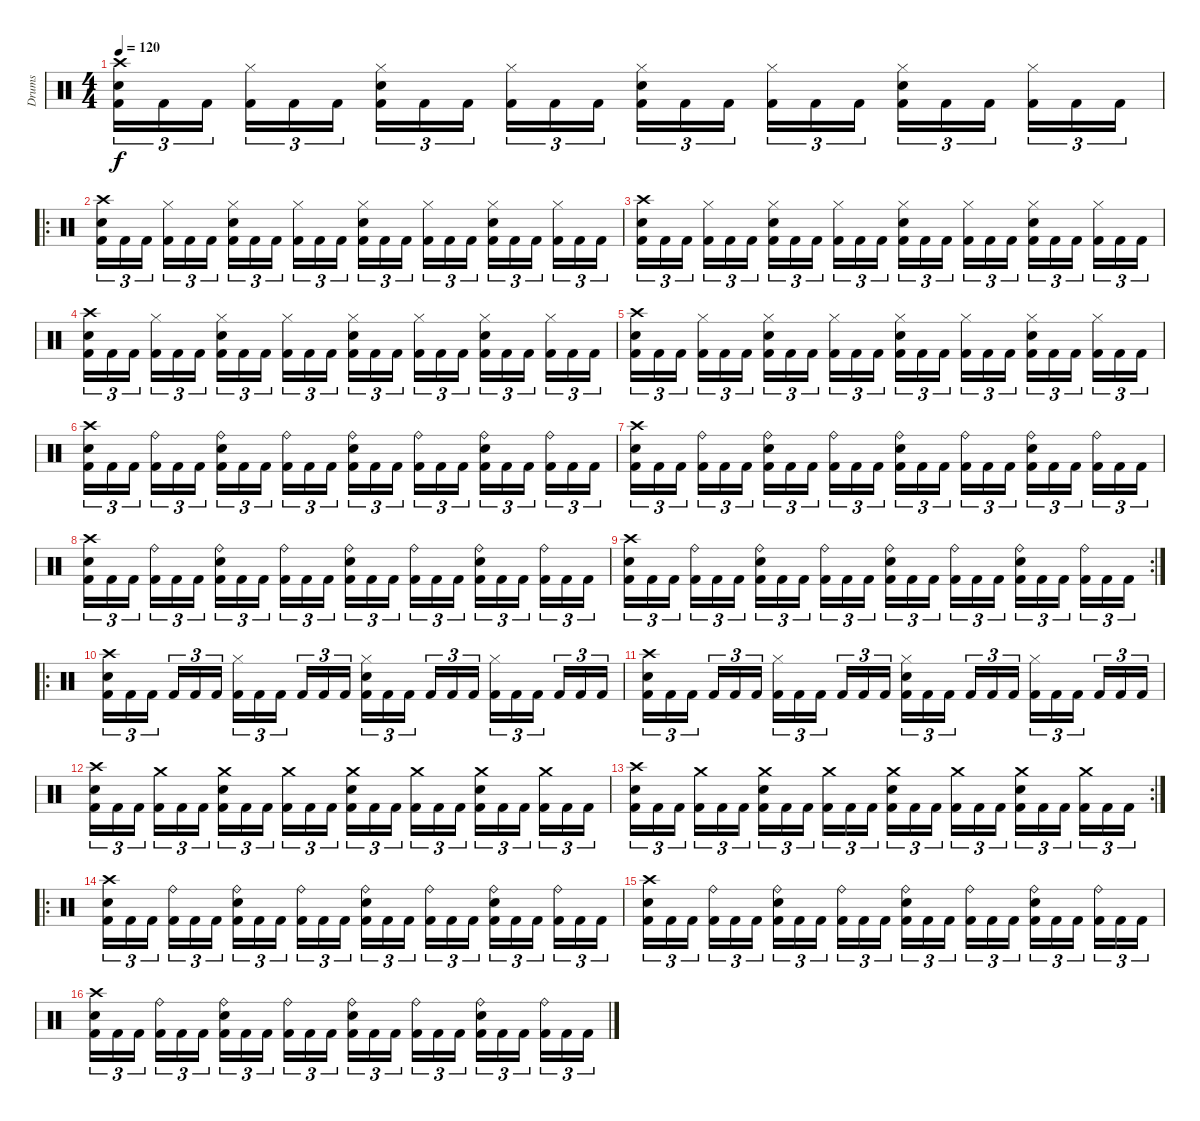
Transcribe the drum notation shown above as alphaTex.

\track ("Drums" "Drums") {instrument percussion}
\staff {score}
\articulation defaults
\ts (4 4)
\tempo 120
\clef neutral
\ks c
("Crash high (hit)" "Snare (hit) 2" "Kick (hit) 2").16{tu (3 2) dy f} "Kick (hit) 2".16{tu (3 2)} "Kick (hit) 2".16{tu (3 2)} ("Hi-Hat (closed)" "Kick (hit) 2").16{tu (3 2)} "Kick (hit) 2".16{tu (3 2)} "Kick (hit) 2".16{tu (3 2)} ("Hi-Hat (closed)" "Snare (hit) 2" "Kick (hit) 2").16{tu (3 2)} "Kick (hit) 2".16{tu (3 2)} "Kick (hit) 2".16{tu (3 2)} ("Hi-Hat (closed)" "Kick (hit) 2").16{tu (3 2)} "Kick (hit) 2".16{tu (3 2)} "Kick (hit) 2".16{tu (3 2)} ("Hi-Hat (closed)" "Snare (hit) 2" "Kick (hit) 2").16{tu (3 2)} "Kick (hit) 2".16{tu (3 2)} "Kick (hit) 2".16{tu (3 2)} ("Hi-Hat (closed)" "Kick (hit) 2").16{tu (3 2)} "Kick (hit) 2".16{tu (3 2)} "Kick (hit) 2".16{tu (3 2)} ("Hi-Hat (closed)" "Snare (hit) 2" "Kick (hit) 2").16{tu (3 2)} "Kick (hit) 2".16{tu (3 2)} "Kick (hit) 2".16{tu (3 2)} ("Hi-Hat (closed)" "Kick (hit) 2").16{tu (3 2)} "Kick (hit) 2".16{tu (3 2)} "Kick (hit) 2".16{tu (3 2)} |
\ro
("Crash high (hit)" "Snare (hit) 2" "Kick (hit) 2").16{tu (3 2)} "Kick (hit) 2".16{tu (3 2)} "Kick (hit) 2".16{tu (3 2)} ("Hi-Hat (closed)" "Kick (hit) 2").16{tu (3 2)} "Kick (hit) 2".16{tu (3 2)} "Kick (hit) 2".16{tu (3 2)} ("Hi-Hat (closed)" "Snare (hit) 2" "Kick (hit) 2").16{tu (3 2)} "Kick (hit) 2".16{tu (3 2)} "Kick (hit) 2".16{tu (3 2)} ("Hi-Hat (closed)" "Kick (hit) 2").16{tu (3 2)} "Kick (hit) 2".16{tu (3 2)} "Kick (hit) 2".16{tu (3 2)} ("Hi-Hat (closed)" "Snare (hit) 2" "Kick (hit) 2").16{tu (3 2)} "Kick (hit) 2".16{tu (3 2)} "Kick (hit) 2".16{tu (3 2)} ("Hi-Hat (closed)" "Kick (hit) 2").16{tu (3 2)} "Kick (hit) 2".16{tu (3 2)} "Kick (hit) 2".16{tu (3 2)} ("Hi-Hat (closed)" "Snare (hit) 2" "Kick (hit) 2").16{tu (3 2)} "Kick (hit) 2".16{tu (3 2)} "Kick (hit) 2".16{tu (3 2)} ("Hi-Hat (closed)" "Kick (hit) 2").16{tu (3 2)} "Kick (hit) 2".16{tu (3 2)} "Kick (hit) 2".16{tu (3 2)} |
("Crash high (hit)" "Snare (hit) 2" "Kick (hit) 2").16{tu (3 2)} "Kick (hit) 2".16{tu (3 2)} "Kick (hit) 2".16{tu (3 2)} ("Hi-Hat (closed)" "Kick (hit) 2").16{tu (3 2)} "Kick (hit) 2".16{tu (3 2)} "Kick (hit) 2".16{tu (3 2)} ("Hi-Hat (closed)" "Snare (hit) 2" "Kick (hit) 2").16{tu (3 2)} "Kick (hit) 2".16{tu (3 2)} "Kick (hit) 2".16{tu (3 2)} ("Hi-Hat (closed)" "Kick (hit) 2").16{tu (3 2)} "Kick (hit) 2".16{tu (3 2)} "Kick (hit) 2".16{tu (3 2)} ("Hi-Hat (closed)" "Snare (hit) 2" "Kick (hit) 2").16{tu (3 2)} "Kick (hit) 2".16{tu (3 2)} "Kick (hit) 2".16{tu (3 2)} ("Hi-Hat (closed)" "Kick (hit) 2").16{tu (3 2)} "Kick (hit) 2".16{tu (3 2)} "Kick (hit) 2".16{tu (3 2)} ("Hi-Hat (closed)" "Snare (hit) 2" "Kick (hit) 2").16{tu (3 2)} "Kick (hit) 2".16{tu (3 2)} "Kick (hit) 2".16{tu (3 2)} ("Hi-Hat (closed)" "Kick (hit) 2").16{tu (3 2)} "Kick (hit) 2".16{tu (3 2)} "Kick (hit) 2".16{tu (3 2)} |
("Crash high (hit)" "Snare (hit) 2" "Kick (hit) 2").16{tu (3 2)} "Kick (hit) 2".16{tu (3 2)} "Kick (hit) 2".16{tu (3 2)} ("Hi-Hat (closed)" "Kick (hit) 2").16{tu (3 2)} "Kick (hit) 2".16{tu (3 2)} "Kick (hit) 2".16{tu (3 2)} ("Hi-Hat (closed)" "Snare (hit) 2" "Kick (hit) 2").16{tu (3 2)} "Kick (hit) 2".16{tu (3 2)} "Kick (hit) 2".16{tu (3 2)} ("Hi-Hat (closed)" "Kick (hit) 2").16{tu (3 2)} "Kick (hit) 2".16{tu (3 2)} "Kick (hit) 2".16{tu (3 2)} ("Hi-Hat (closed)" "Snare (hit) 2" "Kick (hit) 2").16{tu (3 2)} "Kick (hit) 2".16{tu (3 2)} "Kick (hit) 2".16{tu (3 2)} ("Hi-Hat (closed)" "Kick (hit) 2").16{tu (3 2)} "Kick (hit) 2".16{tu (3 2)} "Kick (hit) 2".16{tu (3 2)} ("Hi-Hat (closed)" "Snare (hit) 2" "Kick (hit) 2").16{tu (3 2)} "Kick (hit) 2".16{tu (3 2)} "Kick (hit) 2".16{tu (3 2)} ("Hi-Hat (closed)" "Kick (hit) 2").16{tu (3 2)} "Kick (hit) 2".16{tu (3 2)} "Kick (hit) 2".16{tu (3 2)} |
("Crash high (hit)" "Snare (hit) 2" "Kick (hit) 2").16{tu (3 2)} "Kick (hit) 2".16{tu (3 2)} "Kick (hit) 2".16{tu (3 2)} ("Hi-Hat (closed)" "Kick (hit) 2").16{tu (3 2)} "Kick (hit) 2".16{tu (3 2)} "Kick (hit) 2".16{tu (3 2)} ("Hi-Hat (closed)" "Snare (hit) 2" "Kick (hit) 2").16{tu (3 2)} "Kick (hit) 2".16{tu (3 2)} "Kick (hit) 2".16{tu (3 2)} ("Hi-Hat (closed)" "Kick (hit) 2").16{tu (3 2)} "Kick (hit) 2".16{tu (3 2)} "Kick (hit) 2".16{tu (3 2)} ("Hi-Hat (closed)" "Snare (hit) 2" "Kick (hit) 2").16{tu (3 2)} "Kick (hit) 2".16{tu (3 2)} "Kick (hit) 2".16{tu (3 2)} ("Hi-Hat (closed)" "Kick (hit) 2").16{tu (3 2)} "Kick (hit) 2".16{tu (3 2)} "Kick (hit) 2".16{tu (3 2)} ("Hi-Hat (closed)" "Snare (hit) 2" "Kick (hit) 2").16{tu (3 2)} "Kick (hit) 2".16{tu (3 2)} "Kick (hit) 2".16{tu (3 2)} ("Hi-Hat (closed)" "Kick (hit) 2").16{tu (3 2)} "Kick (hit) 2".16{tu (3 2)} "Kick (hit) 2".16{tu (3 2)} |
("Crash high (hit)" "Snare (hit) 2" "Kick (hit) 2").16{tu (3 2)} "Kick (hit) 2".16{tu (3 2)} "Kick (hit) 2".16{tu (3 2)} ("Ride (bell)" "Kick (hit) 2").16{tu (3 2)} "Kick (hit) 2".16{tu (3 2)} "Kick (hit) 2".16{tu (3 2)} ("Ride (bell)" "Snare (hit) 2" "Kick (hit) 2").16{tu (3 2)} "Kick (hit) 2".16{tu (3 2)} "Kick (hit) 2".16{tu (3 2)} ("Ride (bell)" "Kick (hit) 2").16{tu (3 2)} "Kick (hit) 2".16{tu (3 2)} "Kick (hit) 2".16{tu (3 2)} ("Ride (bell)" "Snare (hit) 2" "Kick (hit) 2").16{tu (3 2)} "Kick (hit) 2".16{tu (3 2)} "Kick (hit) 2".16{tu (3 2)} ("Ride (bell)" "Kick (hit) 2").16{tu (3 2)} "Kick (hit) 2".16{tu (3 2)} "Kick (hit) 2".16{tu (3 2)} ("Ride (bell)" "Snare (hit) 2" "Kick (hit) 2").16{tu (3 2)} "Kick (hit) 2".16{tu (3 2)} "Kick (hit) 2".16{tu (3 2)} ("Ride (bell)" "Kick (hit) 2").16{tu (3 2)} "Kick (hit) 2".16{tu (3 2)} "Kick (hit) 2".16{tu (3 2)} |
("Crash high (hit)" "Snare (hit) 2" "Kick (hit) 2").16{tu (3 2)} "Kick (hit) 2".16{tu (3 2)} "Kick (hit) 2".16{tu (3 2)} ("Ride (bell)" "Kick (hit) 2").16{tu (3 2)} "Kick (hit) 2".16{tu (3 2)} "Kick (hit) 2".16{tu (3 2)} ("Ride (bell)" "Snare (hit) 2" "Kick (hit) 2").16{tu (3 2)} "Kick (hit) 2".16{tu (3 2)} "Kick (hit) 2".16{tu (3 2)} ("Ride (bell)" "Kick (hit) 2").16{tu (3 2)} "Kick (hit) 2".16{tu (3 2)} "Kick (hit) 2".16{tu (3 2)} ("Ride (bell)" "Snare (hit) 2" "Kick (hit) 2").16{tu (3 2)} "Kick (hit) 2".16{tu (3 2)} "Kick (hit) 2".16{tu (3 2)} ("Ride (bell)" "Kick (hit) 2").16{tu (3 2)} "Kick (hit) 2".16{tu (3 2)} "Kick (hit) 2".16{tu (3 2)} ("Ride (bell)" "Snare (hit) 2" "Kick (hit) 2").16{tu (3 2)} "Kick (hit) 2".16{tu (3 2)} "Kick (hit) 2".16{tu (3 2)} ("Ride (bell)" "Kick (hit) 2").16{tu (3 2)} "Kick (hit) 2".16{tu (3 2)} "Kick (hit) 2".16{tu (3 2)} |
("Crash high (hit)" "Snare (hit) 2" "Kick (hit) 2").16{tu (3 2)} "Kick (hit) 2".16{tu (3 2)} "Kick (hit) 2".16{tu (3 2)} ("Ride (bell)" "Kick (hit) 2").16{tu (3 2)} "Kick (hit) 2".16{tu (3 2)} "Kick (hit) 2".16{tu (3 2)} ("Ride (bell)" "Snare (hit) 2" "Kick (hit) 2").16{tu (3 2)} "Kick (hit) 2".16{tu (3 2)} "Kick (hit) 2".16{tu (3 2)} ("Ride (bell)" "Kick (hit) 2").16{tu (3 2)} "Kick (hit) 2".16{tu (3 2)} "Kick (hit) 2".16{tu (3 2)} ("Ride (bell)" "Snare (hit) 2" "Kick (hit) 2").16{tu (3 2)} "Kick (hit) 2".16{tu (3 2)} "Kick (hit) 2".16{tu (3 2)} ("Ride (bell)" "Kick (hit) 2").16{tu (3 2)} "Kick (hit) 2".16{tu (3 2)} "Kick (hit) 2".16{tu (3 2)} ("Ride (bell)" "Snare (hit) 2" "Kick (hit) 2").16{tu (3 2)} "Kick (hit) 2".16{tu (3 2)} "Kick (hit) 2".16{tu (3 2)} ("Ride (bell)" "Kick (hit) 2").16{tu (3 2)} "Kick (hit) 2".16{tu (3 2)} "Kick (hit) 2".16{tu (3 2)} |
\rc 2
("Crash high (hit)" "Snare (hit) 2" "Kick (hit) 2").16{tu (3 2)} "Kick (hit) 2".16{tu (3 2)} "Kick (hit) 2".16{tu (3 2)} ("Ride (bell)" "Kick (hit) 2").16{tu (3 2)} "Kick (hit) 2".16{tu (3 2)} "Kick (hit) 2".16{tu (3 2)} ("Ride (bell)" "Snare (hit) 2" "Kick (hit) 2").16{tu (3 2)} "Kick (hit) 2".16{tu (3 2)} "Kick (hit) 2".16{tu (3 2)} ("Ride (bell)" "Kick (hit) 2").16{tu (3 2)} "Kick (hit) 2".16{tu (3 2)} "Kick (hit) 2".16{tu (3 2)} ("Ride (bell)" "Snare (hit) 2" "Kick (hit) 2").16{tu (3 2)} "Kick (hit) 2".16{tu (3 2)} "Kick (hit) 2".16{tu (3 2)} ("Ride (bell)" "Kick (hit) 2").16{tu (3 2)} "Kick (hit) 2".16{tu (3 2)} "Kick (hit) 2".16{tu (3 2)} ("Ride (bell)" "Snare (hit) 2" "Kick (hit) 2").16{tu (3 2)} "Kick (hit) 2".16{tu (3 2)} "Kick (hit) 2".16{tu (3 2)} ("Ride (bell)" "Kick (hit) 2").16{tu (3 2)} "Kick (hit) 2".16{tu (3 2)} "Kick (hit) 2".16{tu (3 2)} |
\ro
("Crash high (hit)" "Snare (hit) 2" "Kick (hit) 2").16{tu (3 2)} "Kick (hit) 2".16{tu (3 2)} "Kick (hit) 2".16{tu (3 2)} "Kick (hit) 2".16{tu (3 2)} "Kick (hit) 2".16{tu (3 2)} "Kick (hit) 2".16{tu (3 2)} ("Hi-Hat (closed)" "Kick (hit) 2").16{tu (3 2)} "Kick (hit) 2".16{tu (3 2)} "Kick (hit) 2".16{tu (3 2)} "Kick (hit) 2".16{tu (3 2)} "Kick (hit) 2".16{tu (3 2)} "Kick (hit) 2".16{tu (3 2)} ("Hi-Hat (closed)" "Snare (hit) 2" "Kick (hit) 2").16{tu (3 2)} "Kick (hit) 2".16{tu (3 2)} "Kick (hit) 2".16{tu (3 2)} "Kick (hit) 2".16{tu (3 2)} "Kick (hit) 2".16{tu (3 2)} "Kick (hit) 2".16{tu (3 2)} ("Hi-Hat (closed)" "Kick (hit) 2").16{tu (3 2)} "Kick (hit) 2".16{tu (3 2)} "Kick (hit) 2".16{tu (3 2)} "Kick (hit) 2".16{tu (3 2)} "Kick (hit) 2".16{tu (3 2)} "Kick (hit) 2".16{tu (3 2)} |
("Crash high (hit)" "Snare (hit) 2" "Kick (hit) 2").16{tu (3 2)} "Kick (hit) 2".16{tu (3 2)} "Kick (hit) 2".16{tu (3 2)} "Kick (hit) 2".16{tu (3 2)} "Kick (hit) 2".16{tu (3 2)} "Kick (hit) 2".16{tu (3 2)} ("Hi-Hat (closed)" "Kick (hit) 2").16{tu (3 2)} "Kick (hit) 2".16{tu (3 2)} "Kick (hit) 2".16{tu (3 2)} "Kick (hit) 2".16{tu (3 2)} "Kick (hit) 2".16{tu (3 2)} "Kick (hit) 2".16{tu (3 2)} ("Hi-Hat (closed)" "Snare (hit) 2" "Kick (hit) 2").16{tu (3 2)} "Kick (hit) 2".16{tu (3 2)} "Kick (hit) 2".16{tu (3 2)} "Kick (hit) 2".16{tu (3 2)} "Kick (hit) 2".16{tu (3 2)} "Kick (hit) 2".16{tu (3 2)} ("Hi-Hat (closed)" "Kick (hit) 2").16{tu (3 2)} "Kick (hit) 2".16{tu (3 2)} "Kick (hit) 2".16{tu (3 2)} "Kick (hit) 2".16{tu (3 2)} "Kick (hit) 2".16{tu (3 2)} "Kick (hit) 2".16{tu (3 2)} |
("Crash high (hit)" "Snare (hit) 2" "Kick (hit) 2").16{tu (3 2)} "Kick (hit) 2".16{tu (3 2)} "Kick (hit) 2".16{tu (3 2)} ("Crash medium (hit)" "Kick (hit) 2").16{tu (3 2)} "Kick (hit) 2".16{tu (3 2)} "Kick (hit) 2".16{tu (3 2)} ("Crash medium (hit)" "Snare (hit) 2" "Kick (hit) 2").16{tu (3 2)} "Kick (hit) 2".16{tu (3 2)} "Kick (hit) 2".16{tu (3 2)} ("Crash medium (hit)" "Kick (hit) 2").16{tu (3 2)} "Kick (hit) 2".16{tu (3 2)} "Kick (hit) 2".16{tu (3 2)} ("Crash medium (hit)" "Snare (hit) 2" "Kick (hit) 2").16{tu (3 2)} "Kick (hit) 2".16{tu (3 2)} "Kick (hit) 2".16{tu (3 2)} ("Crash medium (hit)" "Kick (hit) 2").16{tu (3 2)} "Kick (hit) 2".16{tu (3 2)} "Kick (hit) 2".16{tu (3 2)} ("Crash medium (hit)" "Snare (hit) 2" "Kick (hit) 2").16{tu (3 2)} "Kick (hit) 2".16{tu (3 2)} "Kick (hit) 2".16{tu (3 2)} ("Crash medium (hit)" "Kick (hit) 2").16{tu (3 2)} "Kick (hit) 2".16{tu (3 2)} "Kick (hit) 2".16{tu (3 2)} |
\rc 2
("Crash high (hit)" "Snare (hit) 2" "Kick (hit) 2").16{tu (3 2)} "Kick (hit) 2".16{tu (3 2)} "Kick (hit) 2".16{tu (3 2)} ("Crash medium (hit)" "Kick (hit) 2").16{tu (3 2)} "Kick (hit) 2".16{tu (3 2)} "Kick (hit) 2".16{tu (3 2)} ("Crash medium (hit)" "Snare (hit) 2" "Kick (hit) 2").16{tu (3 2)} "Kick (hit) 2".16{tu (3 2)} "Kick (hit) 2".16{tu (3 2)} ("Crash medium (hit)" "Kick (hit) 2").16{tu (3 2)} "Kick (hit) 2".16{tu (3 2)} "Kick (hit) 2".16{tu (3 2)} ("Crash medium (hit)" "Snare (hit) 2" "Kick (hit) 2").16{tu (3 2)} "Kick (hit) 2".16{tu (3 2)} "Kick (hit) 2".16{tu (3 2)} ("Crash medium (hit)" "Kick (hit) 2").16{tu (3 2)} "Kick (hit) 2".16{tu (3 2)} "Kick (hit) 2".16{tu (3 2)} ("Crash medium (hit)" "Snare (hit) 2" "Kick (hit) 2").16{tu (3 2)} "Kick (hit) 2".16{tu (3 2)} "Kick (hit) 2".16{tu (3 2)} ("Crash medium (hit)" "Kick (hit) 2").16{tu (3 2)} "Kick (hit) 2".16{tu (3 2)} "Kick (hit) 2".16{tu (3 2)} |
\ro
("Crash high (hit)" "Snare (hit) 2" "Kick (hit) 2").16{tu (3 2)} "Kick (hit) 2".16{tu (3 2)} "Kick (hit) 2".16{tu (3 2)} ("Ride (bell)" "Kick (hit) 2").16{tu (3 2)} "Kick (hit) 2".16{tu (3 2)} "Kick (hit) 2".16{tu (3 2)} ("Ride (bell)" "Snare (hit) 2" "Kick (hit) 2").16{tu (3 2)} "Kick (hit) 2".16{tu (3 2)} "Kick (hit) 2".16{tu (3 2)} ("Ride (bell)" "Kick (hit) 2").16{tu (3 2)} "Kick (hit) 2".16{tu (3 2)} "Kick (hit) 2".16{tu (3 2)} ("Ride (bell)" "Snare (hit) 2" "Kick (hit) 2").16{tu (3 2)} "Kick (hit) 2".16{tu (3 2)} "Kick (hit) 2".16{tu (3 2)} ("Ride (bell)" "Kick (hit) 2").16{tu (3 2)} "Kick (hit) 2".16{tu (3 2)} "Kick (hit) 2".16{tu (3 2)} ("Ride (bell)" "Snare (hit) 2" "Kick (hit) 2").16{tu (3 2)} "Kick (hit) 2".16{tu (3 2)} "Kick (hit) 2".16{tu (3 2)} ("Ride (bell)" "Kick (hit) 2").16{tu (3 2)} "Kick (hit) 2".16{tu (3 2)} "Kick (hit) 2".16{tu (3 2)} |
("Crash high (hit)" "Snare (hit) 2" "Kick (hit) 2").16{tu (3 2)} "Kick (hit) 2".16{tu (3 2)} "Kick (hit) 2".16{tu (3 2)} ("Ride (bell)" "Kick (hit) 2").16{tu (3 2)} "Kick (hit) 2".16{tu (3 2)} "Kick (hit) 2".16{tu (3 2)} ("Ride (bell)" "Snare (hit) 2" "Kick (hit) 2").16{tu (3 2)} "Kick (hit) 2".16{tu (3 2)} "Kick (hit) 2".16{tu (3 2)} ("Ride (bell)" "Kick (hit) 2").16{tu (3 2)} "Kick (hit) 2".16{tu (3 2)} "Kick (hit) 2".16{tu (3 2)} ("Ride (bell)" "Snare (hit) 2" "Kick (hit) 2").16{tu (3 2)} "Kick (hit) 2".16{tu (3 2)} "Kick (hit) 2".16{tu (3 2)} ("Ride (bell)" "Kick (hit) 2").16{tu (3 2)} "Kick (hit) 2".16{tu (3 2)} "Kick (hit) 2".16{tu (3 2)} ("Ride (bell)" "Snare (hit) 2" "Kick (hit) 2").16{tu (3 2)} "Kick (hit) 2".16{tu (3 2)} "Kick (hit) 2".16{tu (3 2)} ("Ride (bell)" "Kick (hit) 2").16{tu (3 2)} "Kick (hit) 2".16{tu (3 2)} "Kick (hit) 2".16{tu (3 2)} |
("Crash high (hit)" "Snare (hit) 2" "Kick (hit) 2").16{tu (3 2)} "Kick (hit) 2".16{tu (3 2)} "Kick (hit) 2".16{tu (3 2)} ("Ride (bell)" "Kick (hit) 2").16{tu (3 2)} "Kick (hit) 2".16{tu (3 2)} "Kick (hit) 2".16{tu (3 2)} ("Ride (bell)" "Snare (hit) 2" "Kick (hit) 2").16{tu (3 2)} "Kick (hit) 2".16{tu (3 2)} "Kick (hit) 2".16{tu (3 2)} ("Ride (bell)" "Kick (hit) 2").16{tu (3 2)} "Kick (hit) 2".16{tu (3 2)} "Kick (hit) 2".16{tu (3 2)} ("Ride (bell)" "Snare (hit) 2" "Kick (hit) 2").16{tu (3 2)} "Kick (hit) 2".16{tu (3 2)} "Kick (hit) 2".16{tu (3 2)} ("Ride (bell)" "Kick (hit) 2").16{tu (3 2)} "Kick (hit) 2".16{tu (3 2)} "Kick (hit) 2".16{tu (3 2)} ("Ride (bell)" "Snare (hit) 2" "Kick (hit) 2").16{tu (3 2)} "Kick (hit) 2".16{tu (3 2)} "Kick (hit) 2".16{tu (3 2)} ("Ride (bell)" "Kick (hit) 2").16{tu (3 2)} "Kick (hit) 2".16{tu (3 2)} "Kick (hit) 2".16{tu (3 2)}
